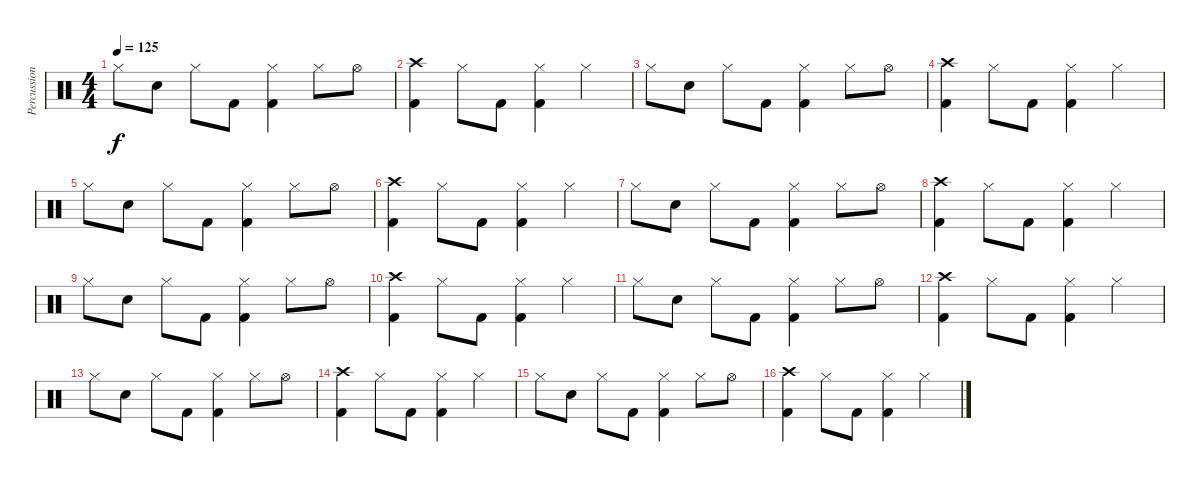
\track ("Percussion" "Percussion") {instrument percussion}
\staff {score}
\articulation defaults
\ts (4 4)
\tempo 125
\clef neutral
\ks c "Hi-Hat (closed)".8{dy f} "Snare (hit) 2".8 "Hi-Hat (closed)".8 "Kick (hit) 2".8
("Hi-Hat (closed)" "Kick (hit) 2").4 "Hi-Hat (closed)".8 "Hi-Hat (open)".8 |
("Crash high (hit)" "Kick (hit) 2").4 "Hi-Hat (closed)".8 "Kick (hit) 2".8 ("Hi-Hat (closed)" "Kick (hit) 2").4 "Hi-Hat (closed)".4 |
"Hi-Hat (closed)".8 "Snare (hit) 2".8 "Hi-Hat (closed)".8 "Kick (hit) 2".8 ("Hi-Hat (closed)" "Kick (hit) 2").4 "Hi-Hat (closed)".8 "Hi-Hat (open)".8 |
("Crash high (hit)" "Kick (hit) 2").4 "Hi-Hat (closed)".8 "Kick (hit) 2".8 ("Hi-Hat (closed)" "Kick (hit) 2").4 "Hi-Hat (closed)".4 |
"Hi-Hat (closed)".8 "Snare (hit) 2".8 "Hi-Hat (closed)".8 "Kick (hit) 2".8 ("Hi-Hat (closed)" "Kick (hit) 2").4 "Hi-Hat (closed)".8 "Hi-Hat (open)".8 |
("Crash high (hit)" "Kick (hit) 2").4 "Hi-Hat (closed)".8 "Kick (hit) 2".8 ("Hi-Hat (closed)" "Kick (hit) 2").4 "Hi-Hat (closed)".4 |
"Hi-Hat (closed)".8 "Snare (hit) 2".8 "Hi-Hat (closed)".8 "Kick (hit) 2".8 ("Hi-Hat (closed)" "Kick (hit) 2").4 "Hi-Hat (closed)".8 "Hi-Hat (open)".8 |
("Crash high (hit)" "Kick (hit) 2").4 "Hi-Hat (closed)".8 "Kick (hit) 2".8 ("Hi-Hat (closed)" "Kick (hit) 2").4 "Hi-Hat (closed)".4 |
"Hi-Hat (closed)".8 "Snare (hit) 2".8 "Hi-Hat (closed)".8 "Kick (hit) 2".8 ("Hi-Hat (closed)" "Kick (hit) 2").4 "Hi-Hat (closed)".8 "Hi-Hat (open)".8 |
("Crash high (hit)" "Kick (hit) 2").4 "Hi-Hat (closed)".8 "Kick (hit) 2".8 ("Hi-Hat (closed)" "Kick (hit) 2").4 "Hi-Hat (closed)".4 |
"Hi-Hat (closed)".8 "Snare (hit) 2".8 "Hi-Hat (closed)".8 "Kick (hit) 2".8 ("Hi-Hat (closed)" "Kick (hit) 2").4 "Hi-Hat (closed)".8 "Hi-Hat (open)".8 |
("Crash high (hit)" "Kick (hit) 2").4 "Hi-Hat (closed)".8 "Kick (hit) 2".8 ("Hi-Hat (closed)" "Kick (hit) 2").4 "Hi-Hat (closed)".4 |
"Hi-Hat (closed)".8 "Snare (hit) 2".8 "Hi-Hat (closed)".8 "Kick (hit) 2".8 ("Hi-Hat (closed)" "Kick (hit) 2").4 "Hi-Hat (closed)".8 "Hi-Hat (open)".8 |
("Crash high (hit)" "Kick (hit) 2").4 "Hi-Hat (closed)".8 "Kick (hit) 2".8 ("Hi-Hat (closed)" "Kick (hit) 2").4 "Hi-Hat (closed)".4 |
"Hi-Hat (closed)".8 "Snare (hit) 2".8 "Hi-Hat (closed)".8 "Kick (hit) 2".8 ("Hi-Hat (closed)" "Kick (hit) 2").4 "Hi-Hat (closed)".8 "Hi-Hat (open)".8 |
("Crash high (hit)" "Kick (hit) 2").4 "Hi-Hat (closed)".8 "Kick (hit) 2".8 ("Hi-Hat (closed)" "Kick (hit) 2").4 "Hi-Hat (closed)".4
